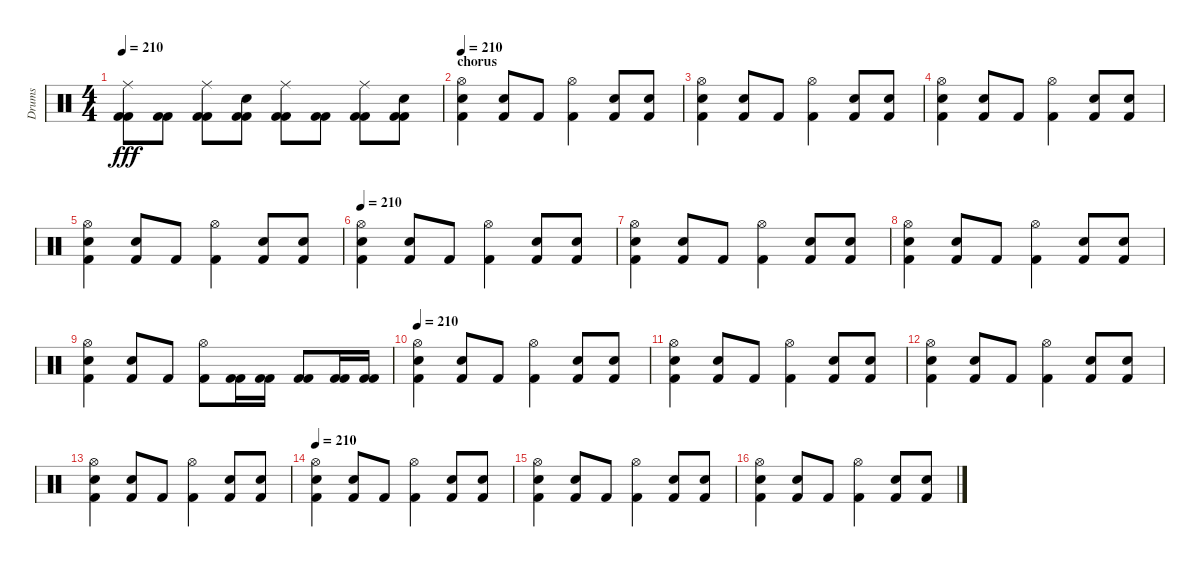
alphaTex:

\track ("Drums" "Drums") {instrument percussion}
\staff {score}
\articulation defaults
\ts (4 4)
\tempo 210
\clef neutral
\ks c
("Ride (middle)" "Kick (hit) 2" "Kick (hit) 2").8{dy fff} ("Kick (hit) 2" "Kick (hit) 2").8 ("Ride (middle)" "Kick (hit) 2" "Kick (hit) 2").8 ("Electric Snare (hit)" "Kick (hit) 2" "Kick (hit) 2").8 ("Ride (middle)" "Kick (hit) 2" "Kick (hit) 2").8 ("Kick (hit) 2" "Kick (hit) 2").8 ("Ride (middle)" "Kick (hit) 2" "Kick (hit) 2").8 ("Electric Snare (hit)" "Kick (hit) 2" "Kick (hit) 2").8 |
\section ("" "chorus")
\tempo 210
("Electric Snare (hit)" "Hi-Hat (open)" "Kick (hit) 2").4 ("Electric Snare (hit)" "Kick (hit) 2").8 "Kick (hit) 2".8 ("Hi-Hat (open)" "Kick (hit) 2").4 ("Electric Snare (hit)" "Kick (hit) 2").8 ("Electric Snare (hit)" "Kick (hit) 2").8 |
("Electric Snare (hit)" "Hi-Hat (open)" "Kick (hit) 2").4 ("Electric Snare (hit)" "Kick (hit) 2").8 "Kick (hit) 2".8 ("Hi-Hat (open)" "Kick (hit) 2").4 ("Electric Snare (hit)" "Kick (hit) 2").8 ("Electric Snare (hit)" "Kick (hit) 2").8 |
("Electric Snare (hit)" "Hi-Hat (open)" "Kick (hit) 2").4 ("Electric Snare (hit)" "Kick (hit) 2").8 "Kick (hit) 2".8 ("Hi-Hat (open)" "Kick (hit) 2").4 ("Electric Snare (hit)" "Kick (hit) 2").8 ("Electric Snare (hit)" "Kick (hit) 2").8 |
("Electric Snare (hit)" "Hi-Hat (open)" "Kick (hit) 2").4 ("Electric Snare (hit)" "Kick (hit) 2").8 "Kick (hit) 2".8 ("Hi-Hat (open)" "Kick (hit) 2").4 ("Electric Snare (hit)" "Kick (hit) 2").8 ("Electric Snare (hit)" "Kick (hit) 2").8 |
\tempo 210
("Electric Snare (hit)" "Hi-Hat (open)" "Kick (hit) 2").4 ("Electric Snare (hit)" "Kick (hit) 2").8 "Kick (hit) 2".8 ("Hi-Hat (open)" "Kick (hit) 2").4 ("Electric Snare (hit)" "Kick (hit) 2").8 ("Electric Snare (hit)" "Kick (hit) 2").8 |
("Electric Snare (hit)" "Hi-Hat (open)" "Kick (hit) 2").4 ("Electric Snare (hit)" "Kick (hit) 2").8 "Kick (hit) 2".8 ("Hi-Hat (open)" "Kick (hit) 2").4 ("Electric Snare (hit)" "Kick (hit) 2").8 ("Electric Snare (hit)" "Kick (hit) 2").8 |
("Electric Snare (hit)" "Hi-Hat (open)" "Kick (hit) 2").4 ("Electric Snare (hit)" "Kick (hit) 2").8 "Kick (hit) 2".8 ("Hi-Hat (open)" "Kick (hit) 2").4 ("Electric Snare (hit)" "Kick (hit) 2").8 ("Electric Snare (hit)" "Kick (hit) 2").8 |
("Electric Snare (hit)" "Hi-Hat (open)" "Kick (hit) 2").4 ("Electric Snare (hit)" "Kick (hit) 2").8 "Kick (hit) 2".8 ("Hi-Hat (open)" "Kick (hit) 2").8 ("Kick (hit) 2" "Kick (hit) 2").16 ("Kick (hit) 2" "Kick (hit) 2").16 ("Kick (hit) 2" "Kick (hit) 2").8 ("Kick (hit) 2" "Kick (hit) 2").16 ("Kick (hit) 2" "Kick (hit) 2").16 |
\tempo 210
("Electric Snare (hit)" "Hi-Hat (open)" "Kick (hit) 2").4 ("Electric Snare (hit)" "Kick (hit) 2").8 "Kick (hit) 2".8 ("Hi-Hat (open)" "Kick (hit) 2").4 ("Electric Snare (hit)" "Kick (hit) 2").8 ("Electric Snare (hit)" "Kick (hit) 2").8 |
("Electric Snare (hit)" "Hi-Hat (open)" "Kick (hit) 2").4 ("Electric Snare (hit)" "Kick (hit) 2").8 "Kick (hit) 2".8 ("Hi-Hat (open)" "Kick (hit) 2").4 ("Electric Snare (hit)" "Kick (hit) 2").8 ("Electric Snare (hit)" "Kick (hit) 2").8 |
("Electric Snare (hit)" "Hi-Hat (open)" "Kick (hit) 2").4 ("Electric Snare (hit)" "Kick (hit) 2").8 "Kick (hit) 2".8 ("Hi-Hat (open)" "Kick (hit) 2").4 ("Electric Snare (hit)" "Kick (hit) 2").8 ("Electric Snare (hit)" "Kick (hit) 2").8 |
("Electric Snare (hit)" "Hi-Hat (open)" "Kick (hit) 2").4 ("Electric Snare (hit)" "Kick (hit) 2").8 "Kick (hit) 2".8 ("Hi-Hat (open)" "Kick (hit) 2").4 ("Electric Snare (hit)" "Kick (hit) 2").8 ("Electric Snare (hit)" "Kick (hit) 2").8 |
\tempo 210
("Electric Snare (hit)" "Hi-Hat (open)" "Kick (hit) 2").4 ("Electric Snare (hit)" "Kick (hit) 2").8 "Kick (hit) 2".8 ("Hi-Hat (open)" "Kick (hit) 2").4 ("Electric Snare (hit)" "Kick (hit) 2").8 ("Electric Snare (hit)" "Kick (hit) 2").8 |
("Electric Snare (hit)" "Hi-Hat (open)" "Kick (hit) 2").4 ("Electric Snare (hit)" "Kick (hit) 2").8 "Kick (hit) 2".8 ("Hi-Hat (open)" "Kick (hit) 2").4 ("Electric Snare (hit)" "Kick (hit) 2").8 ("Electric Snare (hit)" "Kick (hit) 2").8 |
("Electric Snare (hit)" "Hi-Hat (open)" "Kick (hit) 2").4 ("Electric Snare (hit)" "Kick (hit) 2").8 "Kick (hit) 2".8 ("Hi-Hat (open)" "Kick (hit) 2").4 ("Electric Snare (hit)" "Kick (hit) 2").8 ("Electric Snare (hit)" "Kick (hit) 2").8
